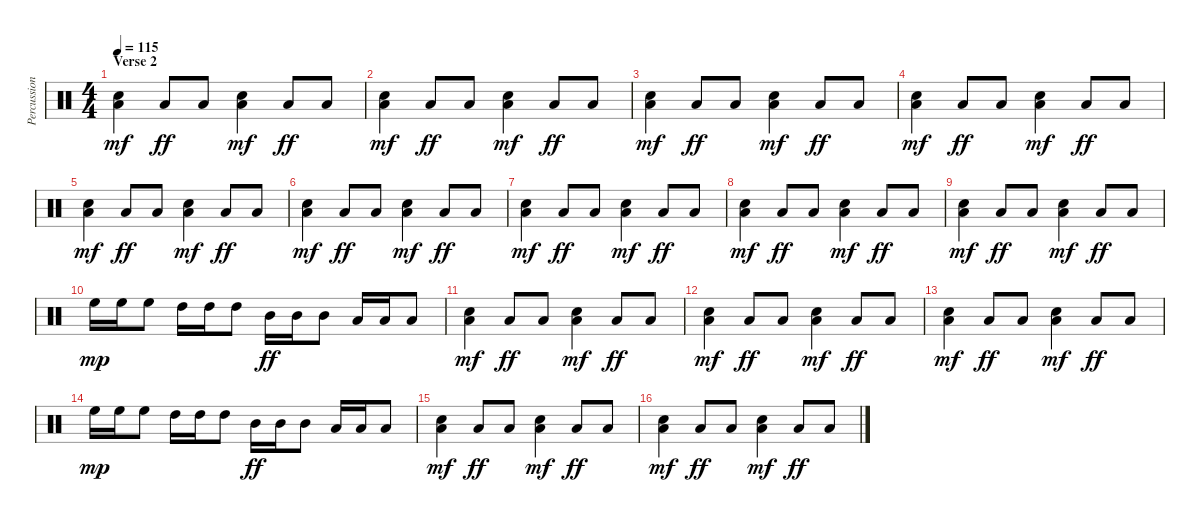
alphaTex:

\track ("Percussion" "Percussion") {instrument percussion}
\staff {score}
\articulation defaults
\ts (4 4)
\section ("" "Verse 2")
\tempo 115
\clef neutral
\ks c
("Low Floor Tom (hit)" "Snare (hit) 2").4{dy mf} "Low Floor Tom (hit)".8{dy ff} "Low Floor Tom (hit)".8 ("Low Floor Tom (hit)" "Snare (hit) 2").4{dy mf} "Low Floor Tom (hit)".8{dy ff} "Low Floor Tom (hit)".8 |
("Low Floor Tom (hit)" "Snare (hit) 2").4{dy mf} "Low Floor Tom (hit)".8{dy ff} "Low Floor Tom (hit)".8 ("Low Floor Tom (hit)" "Snare (hit) 2").4{dy mf} "Low Floor Tom (hit)".8{dy ff} "Low Floor Tom (hit)".8 |
("Low Floor Tom (hit)" "Snare (hit) 2").4{dy mf} "Low Floor Tom (hit)".8{dy ff} "Low Floor Tom (hit)".8 ("Low Floor Tom (hit)" "Snare (hit) 2").4{dy mf} "Low Floor Tom (hit)".8{dy ff} "Low Floor Tom (hit)".8 |
("Low Floor Tom (hit)" "Snare (hit) 2").4{dy mf} "Low Floor Tom (hit)".8{dy ff} "Low Floor Tom (hit)".8 ("Low Floor Tom (hit)" "Snare (hit) 2").4{dy mf} "Low Floor Tom (hit)".8{dy ff} "Low Floor Tom (hit)".8 |
("Low Floor Tom (hit)" "Snare (hit) 2").4{dy mf} "Low Floor Tom (hit)".8{dy ff} "Low Floor Tom (hit)".8 ("Low Floor Tom (hit)" "Snare (hit) 2").4{dy mf} "Low Floor Tom (hit)".8{dy ff} "Low Floor Tom (hit)".8 |
("Low Floor Tom (hit)" "Snare (hit) 2").4{dy mf} "Low Floor Tom (hit)".8{dy ff} "Low Floor Tom (hit)".8 ("Low Floor Tom (hit)" "Snare (hit) 2").4{dy mf} "Low Floor Tom (hit)".8{dy ff} "Low Floor Tom (hit)".8 |
("Low Floor Tom (hit)" "Snare (hit) 2").4{dy mf} "Low Floor Tom (hit)".8{dy ff} "Low Floor Tom (hit)".8 ("Low Floor Tom (hit)" "Snare (hit) 2").4{dy mf} "Low Floor Tom (hit)".8{dy ff} "Low Floor Tom (hit)".8 |
("Low Floor Tom (hit)" "Snare (hit) 2").4{dy mf} "Low Floor Tom (hit)".8{dy ff} "Low Floor Tom (hit)".8 ("Low Floor Tom (hit)" "Snare (hit) 2").4{dy mf} "Low Floor Tom (hit)".8{dy ff} "Low Floor Tom (hit)".8 |
("Low Floor Tom (hit)" "Snare (hit) 2").4{dy mf} "Low Floor Tom (hit)".8{dy ff} "Low Floor Tom (hit)".8 ("Low Floor Tom (hit)" "Snare (hit) 2").4{dy mf} "Low Floor Tom (hit)".8{dy ff} "Low Floor Tom (hit)".8 |
"High Floor Tom (hit)".16{dy mp} "High Floor Tom (hit)".16 "High Floor Tom (hit)".8 "High Tom (hit)".16 "High Tom (hit)".16 "High Tom (hit)".8 "Mid Tom (hit)".16{dy ff} "Mid Tom (hit)".16 "Mid Tom (hit)".8 "Low Tom (hit)".16 "Low Tom (hit)".16 "Low Tom (hit)".8 |
("Low Floor Tom (hit)" "Snare (hit) 2").4{dy mf} "Low Floor Tom (hit)".8{dy ff} "Low Floor Tom (hit)".8 ("Low Floor Tom (hit)" "Snare (hit) 2").4{dy mf} "Low Floor Tom (hit)".8{dy ff} "Low Floor Tom (hit)".8 |
("Low Floor Tom (hit)" "Snare (hit) 2").4{dy mf} "Low Floor Tom (hit)".8{dy ff} "Low Floor Tom (hit)".8 ("Low Floor Tom (hit)" "Snare (hit) 2").4{dy mf} "Low Floor Tom (hit)".8{dy ff} "Low Floor Tom (hit)".8 |
("Low Floor Tom (hit)" "Snare (hit) 2").4{dy mf} "Low Floor Tom (hit)".8{dy ff} "Low Floor Tom (hit)".8 ("Low Floor Tom (hit)" "Snare (hit) 2").4{dy mf} "Low Floor Tom (hit)".8{dy ff} "Low Floor Tom (hit)".8 |
"High Floor Tom (hit)".16{dy mp} "High Floor Tom (hit)".16 "High Floor Tom (hit)".8 "High Tom (hit)".16 "High Tom (hit)".16 "High Tom (hit)".8 "Mid Tom (hit)".16{dy ff} "Mid Tom (hit)".16 "Mid Tom (hit)".8 "Low Tom (hit)".16 "Low Tom (hit)".16 "Low Tom (hit)".8 |
("Low Floor Tom (hit)" "Snare (hit) 2").4{dy mf} "Low Floor Tom (hit)".8{dy ff} "Low Floor Tom (hit)".8 ("Low Floor Tom (hit)" "Snare (hit) 2").4{dy mf} "Low Floor Tom (hit)".8{dy ff} "Low Floor Tom (hit)".8 |
("Low Floor Tom (hit)" "Snare (hit) 2").4{dy mf} "Low Floor Tom (hit)".8{dy ff} "Low Floor Tom (hit)".8 ("Low Floor Tom (hit)" "Snare (hit) 2").4{dy mf} "Low Floor Tom (hit)".8{dy ff} "Low Floor Tom (hit)".8
